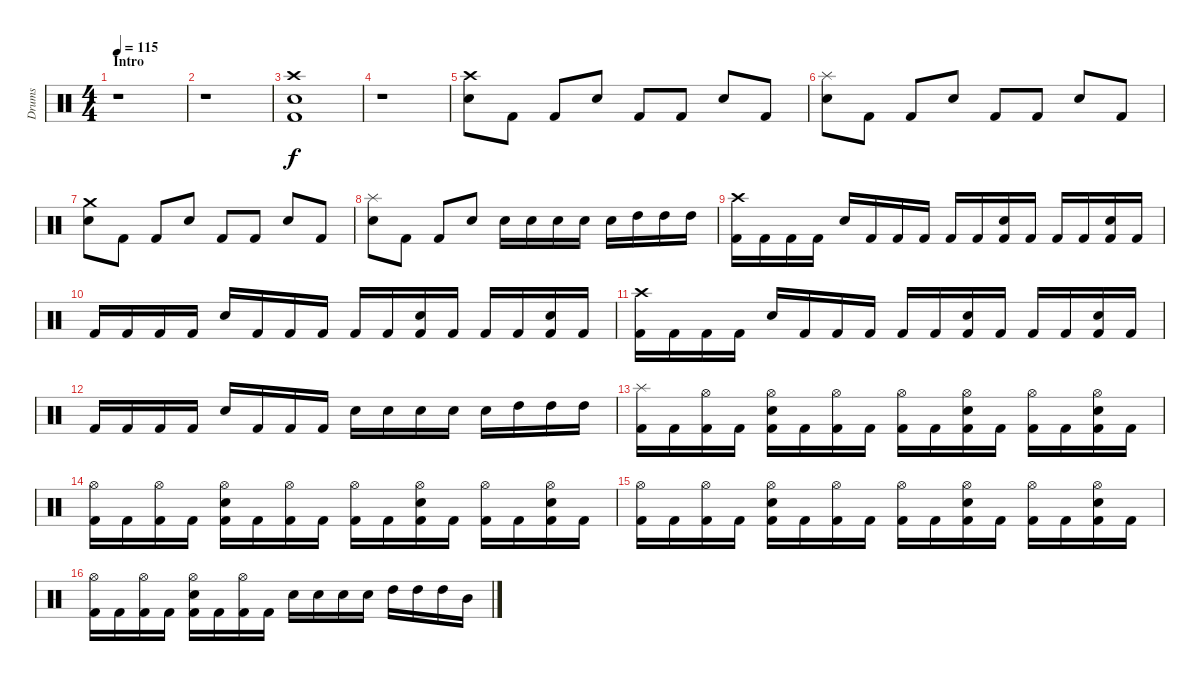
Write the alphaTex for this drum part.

\track ("Drums" "Drums") {instrument percussion}
\staff {score}
\articulation defaults
\ts (4 4)
\section ("" "Intro")
\tempo 115
\clef neutral
\ks c
r.1{dy f} |
r.1 |
("Kick (hit) 2" "Electric Snare (hit)" "Crash high (hit)").1 |
r.1 |
("Electric Snare (hit)" "Crash high (hit)").8 "Kick (hit) 2".8 "Kick (hit) 2".8 "Electric Snare (hit)".8 "Kick (hit) 2".8 "Kick (hit) 2".8 "Electric Snare (hit)".8 "Kick (hit) 2".8 |
("Electric Snare (hit)" "Splash (hit)").8 "Kick (hit) 2".8 "Kick (hit) 2".8 "Electric Snare (hit)".8 "Kick (hit) 2".8 "Kick (hit) 2".8 "Electric Snare (hit)".8 "Kick (hit) 2".8 |
("Electric Snare (hit)" "Crash medium (hit)").8 "Kick (hit) 2".8 "Kick (hit) 2".8 "Electric Snare (hit)".8 "Kick (hit) 2".8 "Kick (hit) 2".8 "Electric Snare (hit)".8 "Kick (hit) 2".8 |
("Electric Snare (hit)" "Splash (hit)").8 "Kick (hit) 2".8 "Kick (hit) 2".8 "Electric Snare (hit)".8 "Electric Snare (hit)".16 "Electric Snare (hit)".16 "Electric Snare (hit)".16 "Electric Snare (hit)".16 "Electric Snare (hit)".16 "High Tom (hit)".16 "High Tom (hit)".16 "High Tom (hit)".16 |
("Kick (hit) 2" "Crash high (hit)").16 "Kick (hit) 2".16 "Kick (hit) 2".16 "Kick (hit) 2".16 "Electric Snare (hit)".16 "Kick (hit) 2".16 "Kick (hit) 2".16 "Kick (hit) 2".16 "Kick (hit) 2".16 "Kick (hit) 2".16 ("Kick (hit) 2" "Electric Snare (hit)").16 "Kick (hit) 2".16 "Kick (hit) 2".16 "Kick (hit) 2".16 ("Kick (hit) 2" "Electric Snare (hit)").16 "Kick (hit) 2".16 |
"Kick (hit) 2".16 "Kick (hit) 2".16 "Kick (hit) 2".16 "Kick (hit) 2".16 "Electric Snare (hit)".16 "Kick (hit) 2".16 "Kick (hit) 2".16 "Kick (hit) 2".16 "Kick (hit) 2".16 "Kick (hit) 2".16 ("Kick (hit) 2" "Electric Snare (hit)").16 "Kick (hit) 2".16 "Kick (hit) 2".16 "Kick (hit) 2".16 ("Kick (hit) 2" "Electric Snare (hit)").16 "Kick (hit) 2".16 |
("Kick (hit) 2" "Crash high (hit)").16 "Kick (hit) 2".16 "Kick (hit) 2".16 "Kick (hit) 2".16 "Electric Snare (hit)".16 "Kick (hit) 2".16 "Kick (hit) 2".16 "Kick (hit) 2".16 "Kick (hit) 2".16 "Kick (hit) 2".16 ("Kick (hit) 2" "Electric Snare (hit)").16 "Kick (hit) 2".16 "Kick (hit) 2".16 "Kick (hit) 2".16 ("Kick (hit) 2" "Electric Snare (hit)").16 "Kick (hit) 2".16 |
"Kick (hit) 2".16 "Kick (hit) 2".16 "Kick (hit) 2".16 "Kick (hit) 2".16 "Electric Snare (hit)".16 "Kick (hit) 2".16 "Kick (hit) 2".16 "Kick (hit) 2".16 "Electric Snare (hit)".16 "Electric Snare (hit)".16 "Electric Snare (hit)".16 "Electric Snare (hit)".16 "Electric Snare (hit)".16 "High Tom (hit)".16 "High Tom (hit)".16 "High Tom (hit)".16 |
("Kick (hit) 2" "Splash (hit)").16 "Kick (hit) 2".16 ("Kick (hit) 2" "Hi-Hat (open)").16 "Kick (hit) 2".16 ("Kick (hit) 2" "Electric Snare (hit)" "Hi-Hat (open)").16 "Kick (hit) 2".16 ("Kick (hit) 2" "Hi-Hat (open)").16 "Kick (hit) 2".16 ("Kick (hit) 2" "Hi-Hat (open)").16 "Kick (hit) 2".16 ("Kick (hit) 2" "Electric Snare (hit)" "Hi-Hat (open)").16 "Kick (hit) 2".16 ("Kick (hit) 2" "Hi-Hat (open)").16 "Kick (hit) 2".16 ("Kick (hit) 2" "Electric Snare (hit)" "Hi-Hat (open)").16 "Kick (hit) 2".16 |
("Kick (hit) 2" "Hi-Hat (open)").16 "Kick (hit) 2".16 ("Kick (hit) 2" "Hi-Hat (open)").16 "Kick (hit) 2".16 ("Kick (hit) 2" "Electric Snare (hit)" "Hi-Hat (open)").16 "Kick (hit) 2".16 ("Kick (hit) 2" "Hi-Hat (open)").16 "Kick (hit) 2".16 ("Kick (hit) 2" "Hi-Hat (open)").16 "Kick (hit) 2".16 ("Kick (hit) 2" "Electric Snare (hit)" "Hi-Hat (open)").16 "Kick (hit) 2".16 ("Kick (hit) 2" "Hi-Hat (open)").16 "Kick (hit) 2".16 ("Kick (hit) 2" "Electric Snare (hit)" "Hi-Hat (open)").16 "Kick (hit) 2".16 |
("Kick (hit) 2" "Hi-Hat (open)").16 "Kick (hit) 2".16 ("Kick (hit) 2" "Hi-Hat (open)").16 "Kick (hit) 2".16 ("Kick (hit) 2" "Electric Snare (hit)" "Hi-Hat (open)").16 "Kick (hit) 2".16 ("Kick (hit) 2" "Hi-Hat (open)").16 "Kick (hit) 2".16 ("Kick (hit) 2" "Hi-Hat (open)").16 "Kick (hit) 2".16 ("Kick (hit) 2" "Electric Snare (hit)" "Hi-Hat (open)").16 "Kick (hit) 2".16 ("Kick (hit) 2" "Hi-Hat (open)").16 "Kick (hit) 2".16 ("Kick (hit) 2" "Electric Snare (hit)" "Hi-Hat (open)").16 "Kick (hit) 2".16 |
("Kick (hit) 2" "Hi-Hat (open)").16 "Kick (hit) 2".16 ("Kick (hit) 2" "Hi-Hat (open)").16 "Kick (hit) 2".16 ("Kick (hit) 2" "Electric Snare (hit)" "Hi-Hat (open)").16 "Kick (hit) 2".16 ("Kick (hit) 2" "Hi-Hat (open)").16 "Kick (hit) 2".16 "Electric Snare (hit)".16 "Electric Snare (hit)".16 "Electric Snare (hit)".16 "Electric Snare (hit)".16 "High Tom (hit)".16 "High Tom (hit)".16 "High Tom (hit)".16 "Mid Tom (hit)".16
